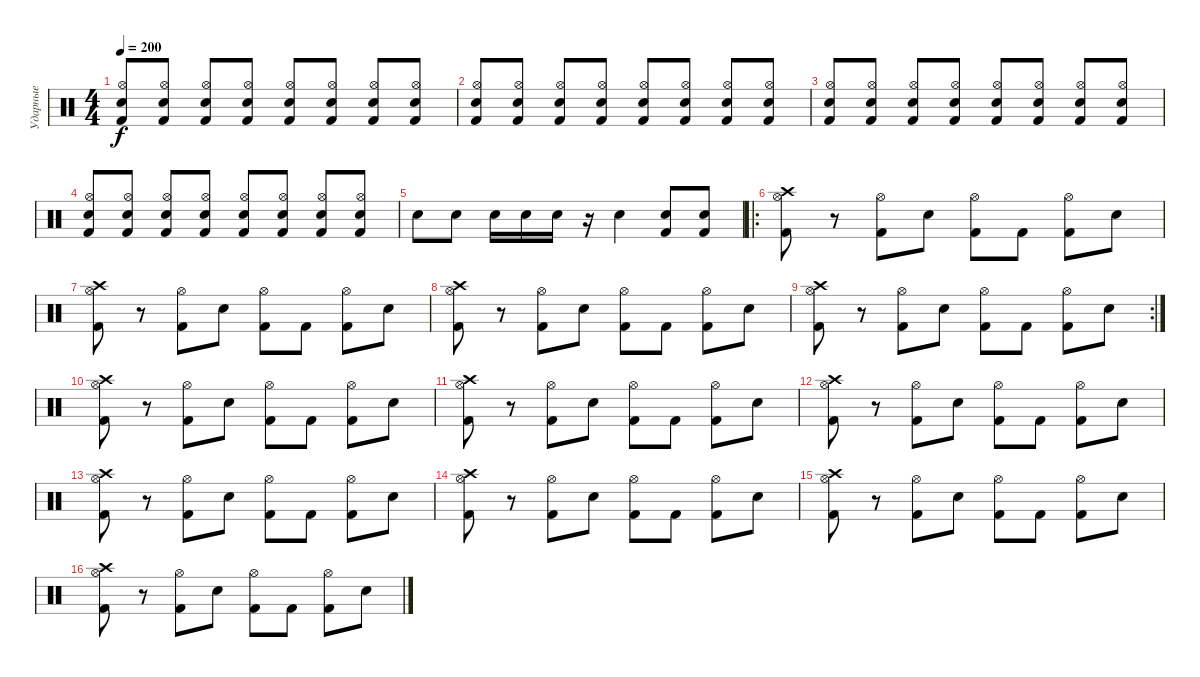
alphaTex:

\track ("Ударные" "Ударные") {instrument percussion}
\staff {score}
\articulation defaults
\ts (4 4)
\tempo 200
\clef neutral
\ks c
("Electric Snare (hit)" "Hi-Hat (open)" "Kick (hit) 2").8{dy f} ("Kick (hit) 2" "Electric Snare (hit)" "Hi-Hat (open)").8 ("Hi-Hat (open)" "Kick (hit) 2" "Electric Snare (hit)").8 ("Electric Snare (hit)" "Kick (hit) 2" "Hi-Hat (open)").8 ("Hi-Hat (open)" "Kick (hit) 2" "Electric Snare (hit)").8 ("Electric Snare (hit)" "Kick (hit) 2" "Hi-Hat (open)").8 ("Hi-Hat (open)" "Kick (hit) 2" "Electric Snare (hit)").8 ("Electric Snare (hit)" "Kick (hit) 2" "Hi-Hat (open)").8 |
("Electric Snare (hit)" "Hi-Hat (open)" "Kick (hit) 2").8 ("Kick (hit) 2" "Electric Snare (hit)" "Hi-Hat (open)").8 ("Hi-Hat (open)" "Kick (hit) 2" "Electric Snare (hit)").8 ("Electric Snare (hit)" "Kick (hit) 2" "Hi-Hat (open)").8 ("Hi-Hat (open)" "Kick (hit) 2" "Electric Snare (hit)").8 ("Electric Snare (hit)" "Kick (hit) 2" "Hi-Hat (open)").8 ("Hi-Hat (open)" "Kick (hit) 2" "Electric Snare (hit)").8 ("Electric Snare (hit)" "Kick (hit) 2" "Hi-Hat (open)").8 |
("Electric Snare (hit)" "Hi-Hat (open)" "Kick (hit) 2").8 ("Kick (hit) 2" "Electric Snare (hit)" "Hi-Hat (open)").8 ("Hi-Hat (open)" "Kick (hit) 2" "Electric Snare (hit)").8 ("Electric Snare (hit)" "Kick (hit) 2" "Hi-Hat (open)").8 ("Hi-Hat (open)" "Kick (hit) 2" "Electric Snare (hit)").8 ("Electric Snare (hit)" "Kick (hit) 2" "Hi-Hat (open)").8 ("Hi-Hat (open)" "Kick (hit) 2" "Electric Snare (hit)").8 ("Electric Snare (hit)" "Kick (hit) 2" "Hi-Hat (open)").8 |
("Electric Snare (hit)" "Hi-Hat (open)" "Kick (hit) 2").8 ("Kick (hit) 2" "Electric Snare (hit)" "Hi-Hat (open)").8 ("Hi-Hat (open)" "Kick (hit) 2" "Electric Snare (hit)").8 ("Electric Snare (hit)" "Kick (hit) 2" "Hi-Hat (open)").8 ("Hi-Hat (open)" "Kick (hit) 2" "Electric Snare (hit)").8 ("Electric Snare (hit)" "Kick (hit) 2" "Hi-Hat (open)").8 ("Hi-Hat (open)" "Kick (hit) 2" "Electric Snare (hit)").8 ("Electric Snare (hit)" "Kick (hit) 2" "Hi-Hat (open)").8 |
"Electric Snare (hit)".8 "Electric Snare (hit)".8 "Electric Snare (hit)".16 "Electric Snare (hit)".16 "Electric Snare (hit)".16 r.16 "Electric Snare (hit)".4 ("Electric Snare (hit)" "Kick (hit) 2").8 ("Electric Snare (hit)" "Kick (hit) 2").8 |
\ro
("Kick (hit) 2" "Hi-Hat (open)" "Crash high (hit)").8 r.8 ("Kick (hit) 2" "Hi-Hat (open)").8 "Electric Snare (hit)".8 ("Kick (hit) 2" "Hi-Hat (open)").8 "Kick (hit) 2".8 ("Kick (hit) 2" "Hi-Hat (open)").8 "Electric Snare (hit)".8 |
("Kick (hit) 2" "Hi-Hat (open)" "Crash high (hit)").8 r.8 ("Kick (hit) 2" "Hi-Hat (open)").8 "Electric Snare (hit)".8 ("Kick (hit) 2" "Hi-Hat (open)").8 "Kick (hit) 2".8 ("Kick (hit) 2" "Hi-Hat (open)").8 "Electric Snare (hit)".8 |
("Kick (hit) 2" "Hi-Hat (open)" "Crash high (hit)").8 r.8 ("Kick (hit) 2" "Hi-Hat (open)").8 "Electric Snare (hit)".8 ("Kick (hit) 2" "Hi-Hat (open)").8 "Kick (hit) 2".8 ("Kick (hit) 2" "Hi-Hat (open)").8 "Electric Snare (hit)".8 |
\rc 2
("Kick (hit) 2" "Hi-Hat (open)" "Crash high (hit)").8 r.8 ("Kick (hit) 2" "Hi-Hat (open)").8 "Electric Snare (hit)".8 ("Kick (hit) 2" "Hi-Hat (open)").8 "Kick (hit) 2".8 ("Kick (hit) 2" "Hi-Hat (open)").8 "Electric Snare (hit)".8 |
("Kick (hit) 2" "Hi-Hat (open)" "Crash high (hit)").8 r.8 ("Kick (hit) 2" "Hi-Hat (open)").8 "Electric Snare (hit)".8 ("Kick (hit) 2" "Hi-Hat (open)").8 "Kick (hit) 2".8 ("Kick (hit) 2" "Hi-Hat (open)").8 "Electric Snare (hit)".8 |
("Kick (hit) 2" "Hi-Hat (open)" "Crash high (hit)").8 r.8 ("Kick (hit) 2" "Hi-Hat (open)").8 "Electric Snare (hit)".8 ("Kick (hit) 2" "Hi-Hat (open)").8 "Kick (hit) 2".8 ("Kick (hit) 2" "Hi-Hat (open)").8 "Electric Snare (hit)".8 |
("Kick (hit) 2" "Hi-Hat (open)" "Crash high (hit)").8 r.8 ("Kick (hit) 2" "Hi-Hat (open)").8 "Electric Snare (hit)".8 ("Kick (hit) 2" "Hi-Hat (open)").8 "Kick (hit) 2".8 ("Kick (hit) 2" "Hi-Hat (open)").8 "Electric Snare (hit)".8 |
("Kick (hit) 2" "Hi-Hat (open)" "Crash high (hit)").8 r.8 ("Kick (hit) 2" "Hi-Hat (open)").8 "Electric Snare (hit)".8 ("Kick (hit) 2" "Hi-Hat (open)").8 "Kick (hit) 2".8 ("Kick (hit) 2" "Hi-Hat (open)").8 "Electric Snare (hit)".8 |
("Kick (hit) 2" "Hi-Hat (open)" "Crash high (hit)").8 r.8 ("Kick (hit) 2" "Hi-Hat (open)").8 "Electric Snare (hit)".8 ("Kick (hit) 2" "Hi-Hat (open)").8 "Kick (hit) 2".8 ("Kick (hit) 2" "Hi-Hat (open)").8 "Electric Snare (hit)".8 |
("Kick (hit) 2" "Hi-Hat (open)" "Crash high (hit)").8 r.8 ("Kick (hit) 2" "Hi-Hat (open)").8 "Electric Snare (hit)".8 ("Kick (hit) 2" "Hi-Hat (open)").8 "Kick (hit) 2".8 ("Kick (hit) 2" "Hi-Hat (open)").8 "Electric Snare (hit)".8 |
("Kick (hit) 2" "Hi-Hat (open)" "Crash high (hit)").8 r.8 ("Kick (hit) 2" "Hi-Hat (open)").8 "Electric Snare (hit)".8 ("Kick (hit) 2" "Hi-Hat (open)").8 "Kick (hit) 2".8 ("Kick (hit) 2" "Hi-Hat (open)").8 "Electric Snare (hit)".8
